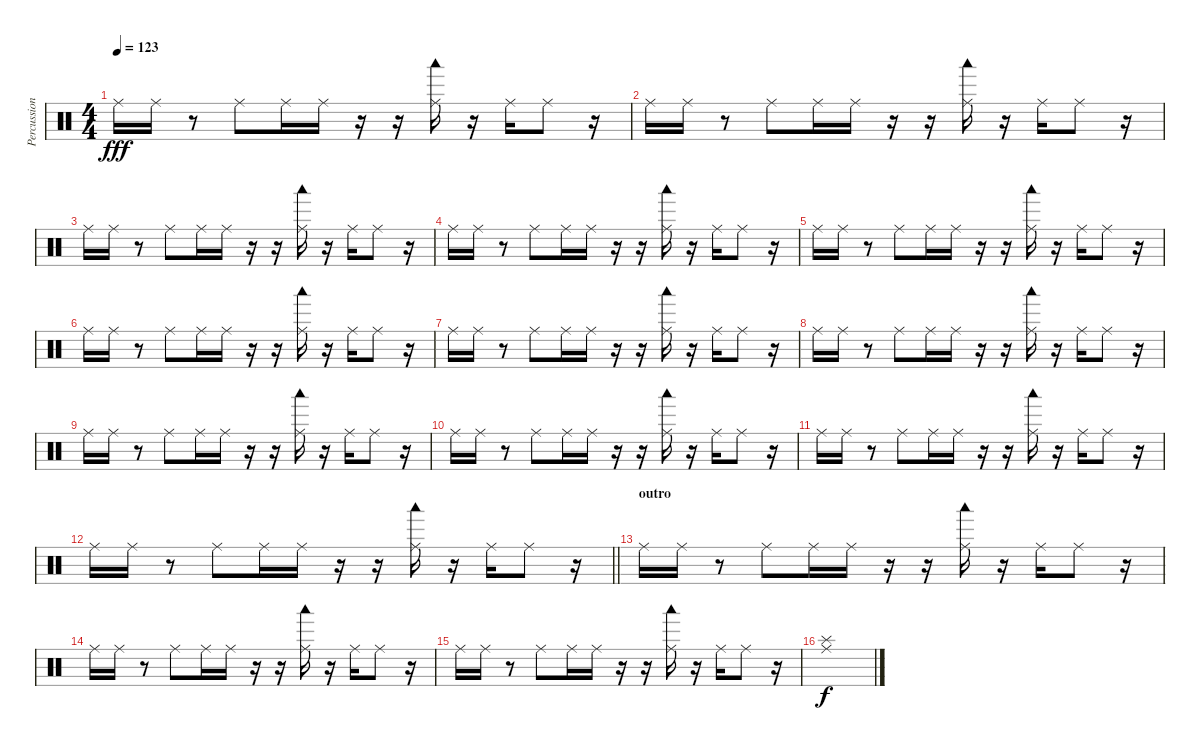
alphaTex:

\track ("Percussion" "Percussion") {instrument percussion}
\staff {score}
\articulation defaults
\ts (4 4)
\tempo 123
\clef neutral
\ks c "Ride (middle)".16{dy fff} "Ride (middle)".16
r.8 "Ride (middle)".8 "Ride (middle)".16 "Ride (middle)".16 r.16 r.16 ("Ride (middle)" "Woodblock low (hit)").16 r.16 "Ride (middle)".16 "Ride (middle)".8 r.16 |
"Ride (middle)".16 "Ride (middle)".16 r.8 "Ride (middle)".8 "Ride (middle)".16 "Ride (middle)".16 r.16 r.16 ("Ride (middle)" "Woodblock low (hit)").16 r.16 "Ride (middle)".16 "Ride (middle)".8 r.16 |
"Ride (middle)".16 "Ride (middle)".16 r.8 "Ride (middle)".8 "Ride (middle)".16 "Ride (middle)".16 r.16 r.16 ("Ride (middle)" "Woodblock low (hit)").16 r.16 "Ride (middle)".16 "Ride (middle)".8 r.16 |
"Ride (middle)".16 "Ride (middle)".16 r.8 "Ride (middle)".8 "Ride (middle)".16 "Ride (middle)".16 r.16 r.16 ("Ride (middle)" "Woodblock low (hit)").16 r.16 "Ride (middle)".16 "Ride (middle)".8 r.16 |
"Ride (middle)".16 "Ride (middle)".16 r.8 "Ride (middle)".8 "Ride (middle)".16 "Ride (middle)".16 r.16 r.16 ("Ride (middle)" "Woodblock low (hit)").16 r.16 "Ride (middle)".16 "Ride (middle)".8 r.16 |
"Ride (middle)".16 "Ride (middle)".16 r.8 "Ride (middle)".8 "Ride (middle)".16 "Ride (middle)".16 r.16 r.16 ("Ride (middle)" "Woodblock low (hit)").16 r.16 "Ride (middle)".16 "Ride (middle)".8 r.16 |
"Ride (middle)".16 "Ride (middle)".16 r.8 "Ride (middle)".8 "Ride (middle)".16 "Ride (middle)".16 r.16 r.16 ("Ride (middle)" "Woodblock low (hit)").16 r.16 "Ride (middle)".16 "Ride (middle)".8 r.16 |
"Ride (middle)".16 "Ride (middle)".16 r.8 "Ride (middle)".8 "Ride (middle)".16 "Ride (middle)".16 r.16 r.16 ("Ride (middle)" "Woodblock low (hit)").16 r.16 "Ride (middle)".16 "Ride (middle)".8 r.16 |
"Ride (middle)".16 "Ride (middle)".16 r.8 "Ride (middle)".8 "Ride (middle)".16 "Ride (middle)".16 r.16 r.16 ("Ride (middle)" "Woodblock low (hit)").16 r.16 "Ride (middle)".16 "Ride (middle)".8 r.16 |
"Ride (middle)".16 "Ride (middle)".16 r.8 "Ride (middle)".8 "Ride (middle)".16 "Ride (middle)".16 r.16 r.16 ("Ride (middle)" "Woodblock low (hit)").16 r.16 "Ride (middle)".16 "Ride (middle)".8 r.16 |
"Ride (middle)".16 "Ride (middle)".16 r.8 "Ride (middle)".8 "Ride (middle)".16 "Ride (middle)".16 r.16 r.16 ("Ride (middle)" "Woodblock low (hit)").16 r.16 "Ride (middle)".16 "Ride (middle)".8 r.16 |
\barLineRight lightlight "Ride (middle)".16 "Ride (middle)".16
r.8 "Ride (middle)".8 "Ride (middle)".16 "Ride (middle)".16 r.16 r.16 ("Ride (middle)" "Woodblock low (hit)").16 r.16 "Ride (middle)".16 "Ride (middle)".8 r.16 |
\section ("" "outro")
"Ride (middle)".16 "Ride (middle)".16 r.8 "Ride (middle)".8 "Ride (middle)".16 "Ride (middle)".16 r.16 r.16 ("Ride (middle)" "Woodblock low (hit)").16 r.16 "Ride (middle)".16 "Ride (middle)".8 r.16 |
"Ride (middle)".16 "Ride (middle)".16 r.8 "Ride (middle)".8 "Ride (middle)".16 "Ride (middle)".16 r.16 r.16 ("Ride (middle)" "Woodblock low (hit)").16 r.16 "Ride (middle)".16 "Ride (middle)".8 r.16 |
"Ride (middle)".16 "Ride (middle)".16 r.8 "Ride (middle)".8 "Ride (middle)".16 "Ride (middle)".16 r.16 r.16 ("Ride (middle)" "Woodblock low (hit)").16 r.16 "Ride (middle)".16 "Ride (middle)".8 r.16 |
("Splash (hit)" "Ride (middle)").1{dy f}
